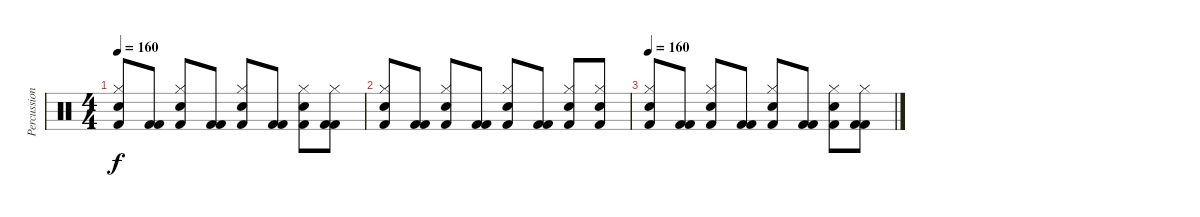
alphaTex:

\track ("Percussion" "Percussion") {instrument percussion}
\staff {score}
\articulation defaults
\ts (4 4)
\tempo 160
\clef neutral
\ks c
("Electric Snare (hit)" "Hi-Hat (closed)" "Kick (hit) 2").8{dy f} ("Kick (hit) 2" "Kick (hit) 2").8 ("Electric Snare (hit)" "Hi-Hat (closed)" "Kick (hit) 2").8 ("Kick (hit) 2" "Kick (hit) 2").8 ("Electric Snare (hit)" "Hi-Hat (closed)" "Kick (hit) 2").8 ("Kick (hit) 2" "Kick (hit) 2").8 ("Electric Snare (hit)" "Hi-Hat (closed)" "Kick (hit) 2").8 ("Kick (hit) 2" "Kick (hit) 2" "Hi-Hat (closed)").8 |
("Electric Snare (hit)" "Hi-Hat (closed)" "Kick (hit) 2").8 ("Kick (hit) 2" "Kick (hit) 2").8 ("Electric Snare (hit)" "Hi-Hat (closed)" "Kick (hit) 2").8 ("Kick (hit) 2" "Kick (hit) 2").8 ("Electric Snare (hit)" "Hi-Hat (closed)" "Kick (hit) 2").8 ("Kick (hit) 2" "Kick (hit) 2").8 ("Electric Snare (hit)" "Hi-Hat (closed)" "Kick (hit) 2").8 ("Electric Snare (hit)" "Hi-Hat (closed)" "Kick (hit) 2").8 |
\tempo 160
("Electric Snare (hit)" "Hi-Hat (closed)" "Kick (hit) 2").8 ("Kick (hit) 2" "Kick (hit) 2").8 ("Electric Snare (hit)" "Hi-Hat (closed)" "Kick (hit) 2").8 ("Kick (hit) 2" "Kick (hit) 2").8 ("Electric Snare (hit)" "Hi-Hat (closed)" "Kick (hit) 2").8 ("Kick (hit) 2" "Kick (hit) 2").8 ("Electric Snare (hit)" "Hi-Hat (closed)" "Kick (hit) 2").8 ("Kick (hit) 2" "Kick (hit) 2" "Hi-Hat (closed)").8
